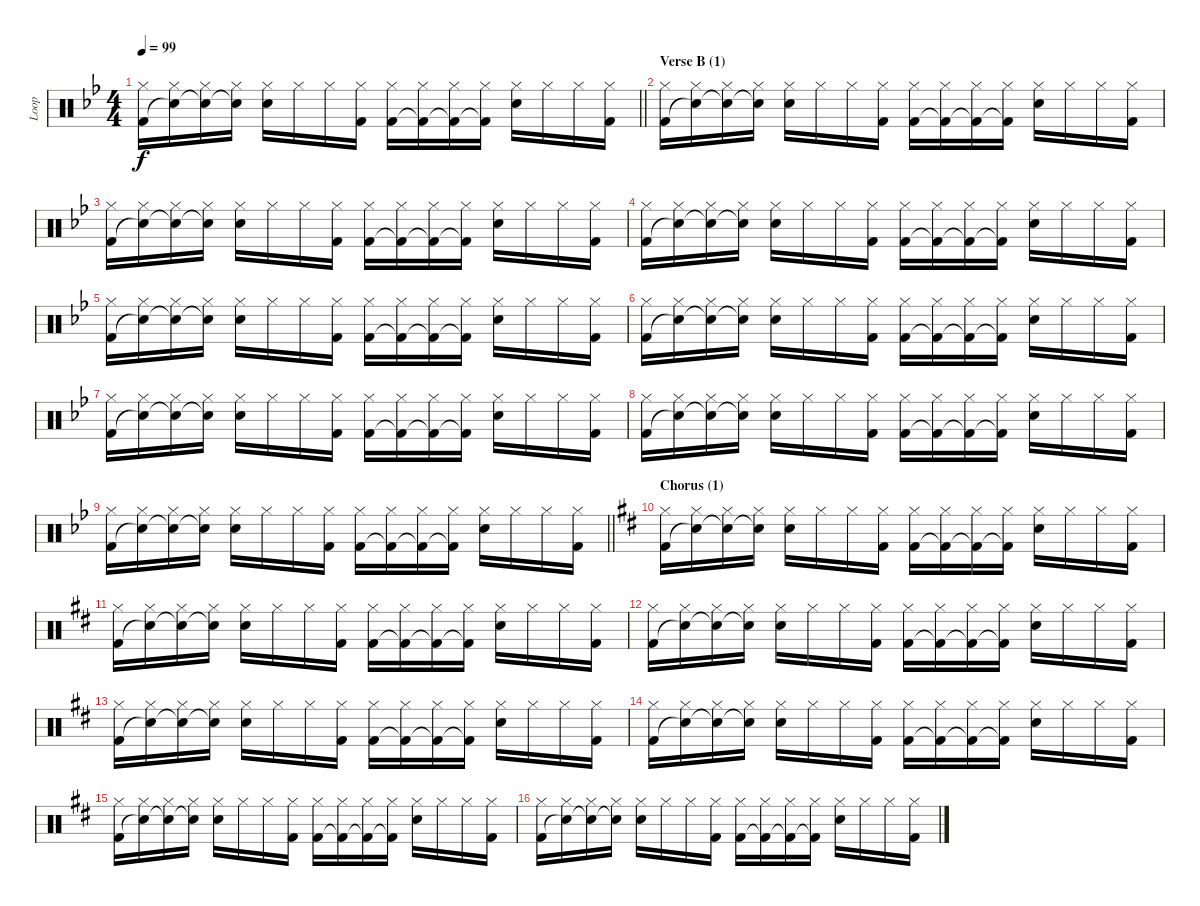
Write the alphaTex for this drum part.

\track ("Loop" "Loop") {instrument percussion}
\staff {score}
\articulation defaults
\ts (4 4)
\tempo 99
\clef neutral
\barLineRight lightlight
\ks gminor
("Hi-Hat (closed)" "Kick (hit) 2").16{dy f} ("Hi-Hat (closed)" "Snare (hit)"{t}).16 ("Hi-Hat (closed)" "Snare (hit)"{t}).16 ("Hi-Hat (closed)" "Snare (hit)"{t}).16 ("Hi-Hat (closed)" "Electric Snare (hit)").16 "Hi-Hat (closed)".16 "Hi-Hat (closed)".16 ("Hi-Hat (closed)" "Kick (hit) 2").16 ("Hi-Hat (closed)" "Kick (hit) 2").16 ("Hi-Hat (closed)" "Kick (hit) 2"{t}).16 ("Hi-Hat (closed)" "Kick (hit) 2"{t}).16 ("Hi-Hat (closed)" "Kick (hit) 2"{t}).16 ("Hi-Hat (closed)" "Electric Snare (hit)").16 "Hi-Hat (closed)".16 "Hi-Hat (closed)".16 ("Hi-Hat (closed)" "Kick (hit) 2").16 |
\section ("" "Verse B (1)")
("Hi-Hat (closed)" "Kick (hit) 2").16 ("Hi-Hat (closed)" "Snare (hit)"{t}).16 ("Hi-Hat (closed)" "Snare (hit)"{t}).16 ("Hi-Hat (closed)" "Snare (hit)"{t}).16 ("Hi-Hat (closed)" "Electric Snare (hit)").16 "Hi-Hat (closed)".16 "Hi-Hat (closed)".16 ("Hi-Hat (closed)" "Kick (hit) 2").16 ("Hi-Hat (closed)" "Kick (hit) 2").16 ("Hi-Hat (closed)" "Kick (hit) 2"{t}).16 ("Hi-Hat (closed)" "Kick (hit) 2"{t}).16 ("Hi-Hat (closed)" "Kick (hit) 2"{t}).16 ("Hi-Hat (closed)" "Electric Snare (hit)").16 "Hi-Hat (closed)".16 "Hi-Hat (closed)".16 ("Hi-Hat (closed)" "Kick (hit) 2").16 |
("Hi-Hat (closed)" "Kick (hit) 2").16 ("Hi-Hat (closed)" "Snare (hit)"{t}).16 ("Hi-Hat (closed)" "Snare (hit)"{t}).16 ("Hi-Hat (closed)" "Snare (hit)"{t}).16 ("Hi-Hat (closed)" "Electric Snare (hit)").16 "Hi-Hat (closed)".16 "Hi-Hat (closed)".16 ("Hi-Hat (closed)" "Kick (hit) 2").16 ("Hi-Hat (closed)" "Kick (hit) 2").16 ("Hi-Hat (closed)" "Kick (hit) 2"{t}).16 ("Hi-Hat (closed)" "Kick (hit) 2"{t}).16 ("Hi-Hat (closed)" "Kick (hit) 2"{t}).16 ("Hi-Hat (closed)" "Electric Snare (hit)").16 "Hi-Hat (closed)".16 "Hi-Hat (closed)".16 ("Hi-Hat (closed)" "Kick (hit) 2").16 |
("Hi-Hat (closed)" "Kick (hit) 2").16 ("Hi-Hat (closed)" "Snare (hit)"{t}).16 ("Hi-Hat (closed)" "Snare (hit)"{t}).16 ("Hi-Hat (closed)" "Snare (hit)"{t}).16 ("Hi-Hat (closed)" "Electric Snare (hit)").16 "Hi-Hat (closed)".16 "Hi-Hat (closed)".16 ("Hi-Hat (closed)" "Kick (hit) 2").16 ("Hi-Hat (closed)" "Kick (hit) 2").16 ("Hi-Hat (closed)" "Kick (hit) 2"{t}).16 ("Hi-Hat (closed)" "Kick (hit) 2"{t}).16 ("Hi-Hat (closed)" "Kick (hit) 2"{t}).16 ("Hi-Hat (closed)" "Electric Snare (hit)").16 "Hi-Hat (closed)".16 "Hi-Hat (closed)".16 ("Hi-Hat (closed)" "Kick (hit) 2").16 |
("Hi-Hat (closed)" "Kick (hit) 2").16 ("Hi-Hat (closed)" "Snare (hit)"{t}).16 ("Hi-Hat (closed)" "Snare (hit)"{t}).16 ("Hi-Hat (closed)" "Snare (hit)"{t}).16 ("Hi-Hat (closed)" "Electric Snare (hit)").16 "Hi-Hat (closed)".16 "Hi-Hat (closed)".16 ("Hi-Hat (closed)" "Kick (hit) 2").16 ("Hi-Hat (closed)" "Kick (hit) 2").16 ("Hi-Hat (closed)" "Kick (hit) 2"{t}).16 ("Hi-Hat (closed)" "Kick (hit) 2"{t}).16 ("Hi-Hat (closed)" "Kick (hit) 2"{t}).16 ("Hi-Hat (closed)" "Electric Snare (hit)").16 "Hi-Hat (closed)".16 "Hi-Hat (closed)".16 ("Hi-Hat (closed)" "Kick (hit) 2").16 |
("Hi-Hat (closed)" "Kick (hit) 2").16 ("Hi-Hat (closed)" "Snare (hit)"{t}).16 ("Hi-Hat (closed)" "Snare (hit)"{t}).16 ("Hi-Hat (closed)" "Snare (hit)"{t}).16 ("Hi-Hat (closed)" "Electric Snare (hit)").16 "Hi-Hat (closed)".16 "Hi-Hat (closed)".16 ("Hi-Hat (closed)" "Kick (hit) 2").16 ("Hi-Hat (closed)" "Kick (hit) 2").16 ("Hi-Hat (closed)" "Kick (hit) 2"{t}).16 ("Hi-Hat (closed)" "Kick (hit) 2"{t}).16 ("Hi-Hat (closed)" "Kick (hit) 2"{t}).16 ("Hi-Hat (closed)" "Electric Snare (hit)").16 "Hi-Hat (closed)".16 "Hi-Hat (closed)".16 ("Hi-Hat (closed)" "Kick (hit) 2").16 |
("Hi-Hat (closed)" "Kick (hit) 2").16 ("Hi-Hat (closed)" "Snare (hit)"{t}).16 ("Hi-Hat (closed)" "Snare (hit)"{t}).16 ("Hi-Hat (closed)" "Snare (hit)"{t}).16 ("Hi-Hat (closed)" "Electric Snare (hit)").16 "Hi-Hat (closed)".16 "Hi-Hat (closed)".16 ("Hi-Hat (closed)" "Kick (hit) 2").16 ("Hi-Hat (closed)" "Kick (hit) 2").16 ("Hi-Hat (closed)" "Kick (hit) 2"{t}).16 ("Hi-Hat (closed)" "Kick (hit) 2"{t}).16 ("Hi-Hat (closed)" "Kick (hit) 2"{t}).16 ("Hi-Hat (closed)" "Electric Snare (hit)").16 "Hi-Hat (closed)".16 "Hi-Hat (closed)".16 ("Hi-Hat (closed)" "Kick (hit) 2").16 |
("Hi-Hat (closed)" "Kick (hit) 2").16 ("Hi-Hat (closed)" "Snare (hit)"{t}).16 ("Hi-Hat (closed)" "Snare (hit)"{t}).16 ("Hi-Hat (closed)" "Snare (hit)"{t}).16 ("Hi-Hat (closed)" "Electric Snare (hit)").16 "Hi-Hat (closed)".16 "Hi-Hat (closed)".16 ("Hi-Hat (closed)" "Kick (hit) 2").16 ("Hi-Hat (closed)" "Kick (hit) 2").16 ("Hi-Hat (closed)" "Kick (hit) 2"{t}).16 ("Hi-Hat (closed)" "Kick (hit) 2"{t}).16 ("Hi-Hat (closed)" "Kick (hit) 2"{t}).16 ("Hi-Hat (closed)" "Electric Snare (hit)").16 "Hi-Hat (closed)".16 "Hi-Hat (closed)".16 ("Hi-Hat (closed)" "Kick (hit) 2").16 |
\barLineRight lightlight
("Hi-Hat (closed)" "Kick (hit) 2").16 ("Hi-Hat (closed)" "Snare (hit)"{t}).16 ("Hi-Hat (closed)" "Snare (hit)"{t}).16 ("Hi-Hat (closed)" "Snare (hit)"{t}).16 ("Hi-Hat (closed)" "Electric Snare (hit)").16 "Hi-Hat (closed)".16 "Hi-Hat (closed)".16 ("Hi-Hat (closed)" "Kick (hit) 2").16 ("Hi-Hat (closed)" "Kick (hit) 2").16 ("Hi-Hat (closed)" "Kick (hit) 2"{t}).16 ("Hi-Hat (closed)" "Kick (hit) 2"{t}).16 ("Hi-Hat (closed)" "Kick (hit) 2"{t}).16 ("Hi-Hat (closed)" "Electric Snare (hit)").16 "Hi-Hat (closed)".16 "Hi-Hat (closed)".16 ("Hi-Hat (closed)" "Kick (hit) 2").16 |
\section ("" "Chorus (1)")
\ks d
("Hi-Hat (closed)" "Kick (hit) 2").16 ("Hi-Hat (closed)" "Snare (hit)"{t}).16 ("Hi-Hat (closed)" "Snare (hit)"{t}).16 ("Hi-Hat (closed)" "Snare (hit)"{t}).16 ("Hi-Hat (closed)" "Electric Snare (hit)").16 "Hi-Hat (closed)".16 "Hi-Hat (closed)".16 ("Hi-Hat (closed)" "Kick (hit) 2").16 ("Hi-Hat (closed)" "Kick (hit) 2").16 ("Hi-Hat (closed)" "Kick (hit) 2"{t}).16 ("Hi-Hat (closed)" "Kick (hit) 2"{t}).16 ("Hi-Hat (closed)" "Kick (hit) 2"{t}).16 ("Hi-Hat (closed)" "Electric Snare (hit)").16 "Hi-Hat (closed)".16 "Hi-Hat (closed)".16 ("Hi-Hat (closed)" "Kick (hit) 2").16 |
("Hi-Hat (closed)" "Kick (hit) 2").16 ("Hi-Hat (closed)" "Snare (hit)"{t}).16 ("Hi-Hat (closed)" "Snare (hit)"{t}).16 ("Hi-Hat (closed)" "Snare (hit)"{t}).16 ("Hi-Hat (closed)" "Electric Snare (hit)").16 "Hi-Hat (closed)".16 "Hi-Hat (closed)".16 ("Hi-Hat (closed)" "Kick (hit) 2").16 ("Hi-Hat (closed)" "Kick (hit) 2").16 ("Hi-Hat (closed)" "Kick (hit) 2"{t}).16 ("Hi-Hat (closed)" "Kick (hit) 2"{t}).16 ("Hi-Hat (closed)" "Kick (hit) 2"{t}).16 ("Hi-Hat (closed)" "Electric Snare (hit)").16 "Hi-Hat (closed)".16 "Hi-Hat (closed)".16 ("Hi-Hat (closed)" "Kick (hit) 2").16 |
("Hi-Hat (closed)" "Kick (hit) 2").16 ("Hi-Hat (closed)" "Snare (hit)"{t}).16 ("Hi-Hat (closed)" "Snare (hit)"{t}).16 ("Hi-Hat (closed)" "Snare (hit)"{t}).16 ("Hi-Hat (closed)" "Electric Snare (hit)").16 "Hi-Hat (closed)".16 "Hi-Hat (closed)".16 ("Hi-Hat (closed)" "Kick (hit) 2").16 ("Hi-Hat (closed)" "Kick (hit) 2").16 ("Hi-Hat (closed)" "Kick (hit) 2"{t}).16 ("Hi-Hat (closed)" "Kick (hit) 2"{t}).16 ("Hi-Hat (closed)" "Kick (hit) 2"{t}).16 ("Hi-Hat (closed)" "Electric Snare (hit)").16 "Hi-Hat (closed)".16 "Hi-Hat (closed)".16 ("Hi-Hat (closed)" "Kick (hit) 2").16 |
("Hi-Hat (closed)" "Kick (hit) 2").16 ("Hi-Hat (closed)" "Snare (hit)"{t}).16 ("Hi-Hat (closed)" "Snare (hit)"{t}).16 ("Hi-Hat (closed)" "Snare (hit)"{t}).16 ("Hi-Hat (closed)" "Electric Snare (hit)").16 "Hi-Hat (closed)".16 "Hi-Hat (closed)".16 ("Hi-Hat (closed)" "Kick (hit) 2").16 ("Hi-Hat (closed)" "Kick (hit) 2").16 ("Hi-Hat (closed)" "Kick (hit) 2"{t}).16 ("Hi-Hat (closed)" "Kick (hit) 2"{t}).16 ("Hi-Hat (closed)" "Kick (hit) 2"{t}).16 ("Hi-Hat (closed)" "Electric Snare (hit)").16 "Hi-Hat (closed)".16 "Hi-Hat (closed)".16 ("Hi-Hat (closed)" "Kick (hit) 2").16 |
("Hi-Hat (closed)" "Kick (hit) 2").16 ("Hi-Hat (closed)" "Snare (hit)"{t}).16 ("Hi-Hat (closed)" "Snare (hit)"{t}).16 ("Hi-Hat (closed)" "Snare (hit)"{t}).16 ("Hi-Hat (closed)" "Electric Snare (hit)").16 "Hi-Hat (closed)".16 "Hi-Hat (closed)".16 ("Hi-Hat (closed)" "Kick (hit) 2").16 ("Hi-Hat (closed)" "Kick (hit) 2").16 ("Hi-Hat (closed)" "Kick (hit) 2"{t}).16 ("Hi-Hat (closed)" "Kick (hit) 2"{t}).16 ("Hi-Hat (closed)" "Kick (hit) 2"{t}).16 ("Hi-Hat (closed)" "Electric Snare (hit)").16 "Hi-Hat (closed)".16 "Hi-Hat (closed)".16 ("Hi-Hat (closed)" "Kick (hit) 2").16 |
("Hi-Hat (closed)" "Kick (hit) 2").16 ("Hi-Hat (closed)" "Snare (hit)"{t}).16 ("Hi-Hat (closed)" "Snare (hit)"{t}).16 ("Hi-Hat (closed)" "Snare (hit)"{t}).16 ("Hi-Hat (closed)" "Electric Snare (hit)").16 "Hi-Hat (closed)".16 "Hi-Hat (closed)".16 ("Hi-Hat (closed)" "Kick (hit) 2").16 ("Hi-Hat (closed)" "Kick (hit) 2").16 ("Hi-Hat (closed)" "Kick (hit) 2"{t}).16 ("Hi-Hat (closed)" "Kick (hit) 2"{t}).16 ("Hi-Hat (closed)" "Kick (hit) 2"{t}).16 ("Hi-Hat (closed)" "Electric Snare (hit)").16 "Hi-Hat (closed)".16 "Hi-Hat (closed)".16 ("Hi-Hat (closed)" "Kick (hit) 2").16 |
("Hi-Hat (closed)" "Kick (hit) 2").16 ("Hi-Hat (closed)" "Snare (hit)"{t}).16 ("Hi-Hat (closed)" "Snare (hit)"{t}).16 ("Hi-Hat (closed)" "Snare (hit)"{t}).16 ("Hi-Hat (closed)" "Electric Snare (hit)").16 "Hi-Hat (closed)".16 "Hi-Hat (closed)".16 ("Hi-Hat (closed)" "Kick (hit) 2").16 ("Hi-Hat (closed)" "Kick (hit) 2").16 ("Hi-Hat (closed)" "Kick (hit) 2"{t}).16 ("Hi-Hat (closed)" "Kick (hit) 2"{t}).16 ("Hi-Hat (closed)" "Kick (hit) 2"{t}).16 ("Hi-Hat (closed)" "Electric Snare (hit)").16 "Hi-Hat (closed)".16 "Hi-Hat (closed)".16 ("Hi-Hat (closed)" "Kick (hit) 2").16
